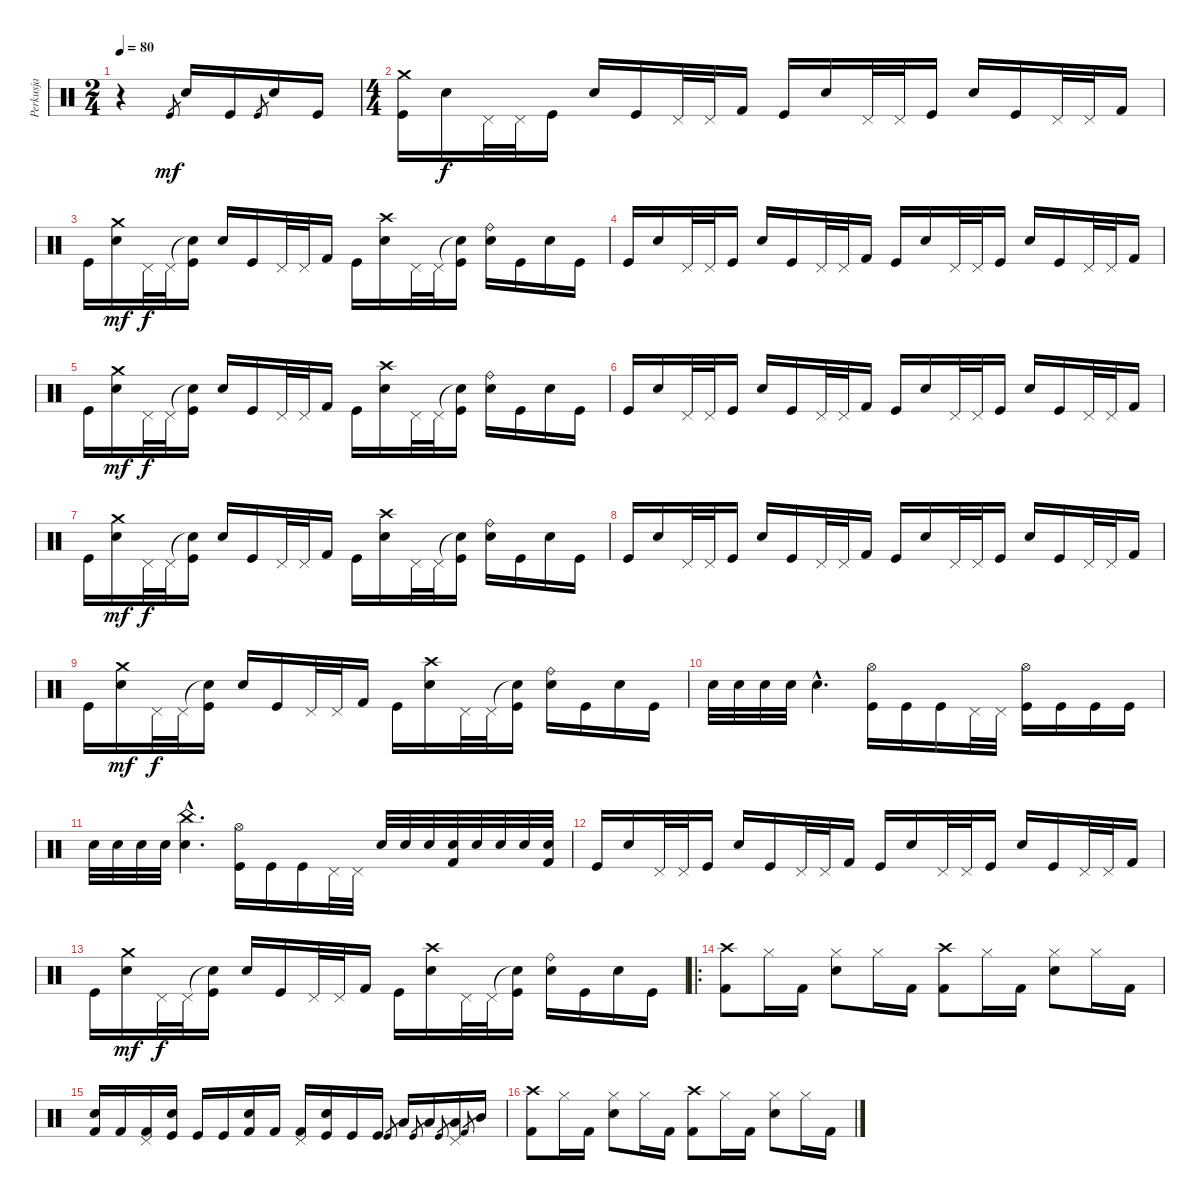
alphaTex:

\track ("Perkusja" "Perkusja") {instrument percussion}
\staff {score}
\articulation defaults
\ts (2 4)
\tempo 80
\clef neutral
\ks c
r.4{dy mf} "Kick (hit)".8{gr} "Electric Snare (hit)".16 "Kick (hit)".16 "Kick (hit)".8{gr} "Electric Snare (hit)".16 "Kick (hit)".16 |
\ts (4 4)
("Kick (hit)" "Crash medium (hit)").16 "Electric Snare (hit)".16{dy f} "Pedal Hi-Hat (hit)".32 "Pedal Hi-Hat (hit)".32 "Kick (hit)".16 "Electric Snare (hit)".16 "Kick (hit)".16 "Pedal Hi-Hat (hit)".32 "Pedal Hi-Hat (hit)".32 "Kick (hit) 2".16 "Kick (hit)".16 "Electric Snare (hit)".16 "Pedal Hi-Hat (hit)".32 "Pedal Hi-Hat (hit)".32 "Kick (hit)".16 "Electric Snare (hit)".16 "Kick (hit)".16 "Pedal Hi-Hat (hit)".32 "Pedal Hi-Hat (hit)".32 "Kick (hit) 2".16 |
"Kick (hit)".16 ("Electric Snare (hit)" "Crash medium (hit)").16{dy mf} "Pedal Hi-Hat (hit)".32{dy f} "Pedal Hi-Hat (hit)".32 ("Snare (hit)"{t} "Kick (hit)").16 "Electric Snare (hit)".16 "Kick (hit)".16 "Pedal Hi-Hat (hit)".32 "Pedal Hi-Hat (hit)".32 "Kick (hit) 2".16 "Kick (hit)".16 ("Electric Snare (hit)" "Crash high (hit)").16 "Pedal Hi-Hat (hit)".32 "Pedal Hi-Hat (hit)".32 ("Snare (hit)"{t} "Kick (hit)").16 ("Electric Snare (hit)" "Ride (bell)").16 "Kick (hit)".16 "Electric Snare (hit)".16 "Kick (hit)".16 |
"Kick (hit)".16 "Electric Snare (hit)".16 "Pedal Hi-Hat (hit)".32 "Pedal Hi-Hat (hit)".32 "Kick (hit)".16 "Electric Snare (hit)".16 "Kick (hit)".16 "Pedal Hi-Hat (hit)".32 "Pedal Hi-Hat (hit)".32 "Kick (hit) 2".16 "Kick (hit)".16 "Electric Snare (hit)".16 "Pedal Hi-Hat (hit)".32 "Pedal Hi-Hat (hit)".32 "Kick (hit)".16 "Electric Snare (hit)".16 "Kick (hit)".16 "Pedal Hi-Hat (hit)".32 "Pedal Hi-Hat (hit)".32 "Kick (hit) 2".16 |
"Kick (hit)".16 ("Electric Snare (hit)" "Crash medium (hit)").16{dy mf} "Pedal Hi-Hat (hit)".32{dy f} "Pedal Hi-Hat (hit)".32 ("Snare (hit)"{t} "Kick (hit)").16 "Electric Snare (hit)".16 "Kick (hit)".16 "Pedal Hi-Hat (hit)".32 "Pedal Hi-Hat (hit)".32 "Kick (hit) 2".16 "Kick (hit)".16 ("Electric Snare (hit)" "Crash high (hit)").16 "Pedal Hi-Hat (hit)".32 "Pedal Hi-Hat (hit)".32 ("Snare (hit)"{t} "Kick (hit)").16 ("Electric Snare (hit)" "Ride (bell)").16 "Kick (hit)".16 "Electric Snare (hit)".16 "Kick (hit)".16 |
"Kick (hit)".16 "Electric Snare (hit)".16 "Pedal Hi-Hat (hit)".32 "Pedal Hi-Hat (hit)".32 "Kick (hit)".16 "Electric Snare (hit)".16 "Kick (hit)".16 "Pedal Hi-Hat (hit)".32 "Pedal Hi-Hat (hit)".32 "Kick (hit) 2".16 "Kick (hit)".16 "Electric Snare (hit)".16 "Pedal Hi-Hat (hit)".32 "Pedal Hi-Hat (hit)".32 "Kick (hit)".16 "Electric Snare (hit)".16 "Kick (hit)".16 "Pedal Hi-Hat (hit)".32 "Pedal Hi-Hat (hit)".32 "Kick (hit) 2".16 |
"Kick (hit)".16 ("Electric Snare (hit)" "Crash medium (hit)").16{dy mf} "Pedal Hi-Hat (hit)".32{dy f} "Pedal Hi-Hat (hit)".32 ("Snare (hit)"{t} "Kick (hit)").16 "Electric Snare (hit)".16 "Kick (hit)".16 "Pedal Hi-Hat (hit)".32 "Pedal Hi-Hat (hit)".32 "Kick (hit) 2".16 "Kick (hit)".16 ("Electric Snare (hit)" "Crash high (hit)").16 "Pedal Hi-Hat (hit)".32 "Pedal Hi-Hat (hit)".32 ("Snare (hit)"{t} "Kick (hit)").16 ("Electric Snare (hit)" "Ride (bell)").16 "Kick (hit)".16 "Electric Snare (hit)".16 "Kick (hit)".16 |
"Kick (hit)".16 "Electric Snare (hit)".16 "Pedal Hi-Hat (hit)".32 "Pedal Hi-Hat (hit)".32 "Kick (hit)".16 "Electric Snare (hit)".16 "Kick (hit)".16 "Pedal Hi-Hat (hit)".32 "Pedal Hi-Hat (hit)".32 "Kick (hit) 2".16 "Kick (hit)".16 "Electric Snare (hit)".16 "Pedal Hi-Hat (hit)".32 "Pedal Hi-Hat (hit)".32 "Kick (hit)".16 "Electric Snare (hit)".16 "Kick (hit)".16 "Pedal Hi-Hat (hit)".32 "Pedal Hi-Hat (hit)".32 "Kick (hit) 2".16 |
"Kick (hit)".16 ("Electric Snare (hit)" "Crash medium (hit)").16{dy mf} "Pedal Hi-Hat (hit)".32{dy f} "Pedal Hi-Hat (hit)".32 ("Snare (hit)"{t} "Kick (hit)").16 "Electric Snare (hit)".16 "Kick (hit)".16 "Pedal Hi-Hat (hit)".32 "Pedal Hi-Hat (hit)".32 "Kick (hit) 2".16 "Kick (hit)".16 ("Electric Snare (hit)" "Crash high (hit)").16 "Pedal Hi-Hat (hit)".32 "Pedal Hi-Hat (hit)".32 ("Snare (hit)"{t} "Kick (hit)").16 ("Electric Snare (hit)" "Ride (bell)").16 "Kick (hit)".16 "Electric Snare (hit)".16 "Kick (hit)".16 |
"Snare (hit) 2".32 "Electric Snare (hit)".32 "Electric Snare (hit)".32 "Electric Snare (hit)".32 "Electric Snare (hit)"{hac}.4{d} ("Kick (hit)" "Hi-Hat (open)").16 "Kick (hit)".16 "Kick (hit)".16 "Pedal Hi-Hat (hit)".32 "Pedal Hi-Hat (hit)".32 ("Kick (hit)" "Hi-Hat (open)").16 "Kick (hit)".16 "Kick (hit)".16 "Kick (hit)".16 |
"Snare (hit) 2".32 "Electric Snare (hit)".32 "Electric Snare (hit)".32 "Electric Snare (hit)".32 ("Electric Snare (hit)"{hac} "China (hit)"{hac}).4{d} ("Kick (hit)" "Hi-Hat (open)").16 "Kick (hit)".16 "Kick (hit)".16 "Pedal Hi-Hat (hit)".32 "Pedal Hi-Hat (hit)".32 "Snare (hit) 2".32 "Electric Snare (hit)".32 "Electric Snare (hit)".32 ("Electric Snare (hit)" "Kick (hit) 2").32 "Snare (hit) 2".32 "Electric Snare (hit)".32 "Electric Snare (hit)".32 ("Electric Snare (hit)" "Kick (hit) 2").32 |
"Kick (hit)".16 "Electric Snare (hit)".16 "Pedal Hi-Hat (hit)".32 "Pedal Hi-Hat (hit)".32 "Kick (hit)".16 "Electric Snare (hit)".16 "Kick (hit)".16 "Pedal Hi-Hat (hit)".32 "Pedal Hi-Hat (hit)".32 "Kick (hit) 2".16 "Kick (hit)".16 "Electric Snare (hit)".16 "Pedal Hi-Hat (hit)".32 "Pedal Hi-Hat (hit)".32 "Kick (hit)".16 "Electric Snare (hit)".16 "Kick (hit)".16 "Pedal Hi-Hat (hit)".32 "Pedal Hi-Hat (hit)".32 "Kick (hit) 2".16 |
"Kick (hit)".16 ("Electric Snare (hit)" "Crash medium (hit)").16{dy mf} "Pedal Hi-Hat (hit)".32{dy f} "Pedal Hi-Hat (hit)".32 ("Snare (hit)"{t} "Kick (hit)").16 "Electric Snare (hit)".16 "Kick (hit)".16 "Pedal Hi-Hat (hit)".32 "Pedal Hi-Hat (hit)".32 "Kick (hit) 2".16 "Kick (hit)".16 ("Electric Snare (hit)" "Crash high (hit)").16 "Pedal Hi-Hat (hit)".32 "Pedal Hi-Hat (hit)".32 ("Snare (hit)"{t} "Kick (hit)").16 ("Electric Snare (hit)" "Ride (bell)").16 "Kick (hit)".16 "Electric Snare (hit)".16 "Kick (hit)".16 |
\ro
("Kick (hit) 2" "Crash high (hit)").8 "Hi-Hat (closed)".16 "Kick (hit) 2".16 ("Snare (hit) 2" "Hi-Hat (closed)").8 "Hi-Hat (closed)".16 "Kick (hit) 2".16 ("Kick (hit) 2" "Crash high (hit)").8 "Hi-Hat (closed)".16 "Kick (hit) 2".16 ("Snare (hit) 2" "Hi-Hat (closed)").8 "Hi-Hat (closed)".16 "Kick (hit) 2".16 |
("Kick (hit) 2" "Electric Snare (hit)").16 "Kick (hit) 2".16 ("Kick (hit) 2" "Pedal Hi-Hat (hit)").16 ("Kick (hit)" "Snare (hit) 2").16 "Kick (hit)".16 "Kick (hit)".16 ("Kick (hit) 2" "Electric Snare (hit)").16 "Kick (hit) 2".16 ("Kick (hit) 2" "Pedal Hi-Hat (hit)").16 ("Kick (hit)" "Snare (hit) 2").16 "Kick (hit)".16 "Kick (hit)".16 "Kick (hit)".8{gr} "Low Tom (hit)".16 "Kick (hit)".8{gr} "Low Tom (hit)".16 "Kick (hit)".8{gr} ("Low Tom (hit)" "Pedal Hi-Hat (hit)").16 "Kick (hit) 2".8{gr} "Mid Tom (hit)".16 |
("Kick (hit) 2" "Crash high (hit)").8 "Hi-Hat (closed)".16 "Kick (hit) 2".16 ("Snare (hit) 2" "Hi-Hat (closed)").8 "Hi-Hat (closed)".16 "Kick (hit) 2".16 ("Kick (hit) 2" "Crash high (hit)").8 "Hi-Hat (closed)".16 "Kick (hit) 2".16 ("Snare (hit) 2" "Hi-Hat (closed)").8 "Hi-Hat (closed)".16 "Kick (hit) 2".16
